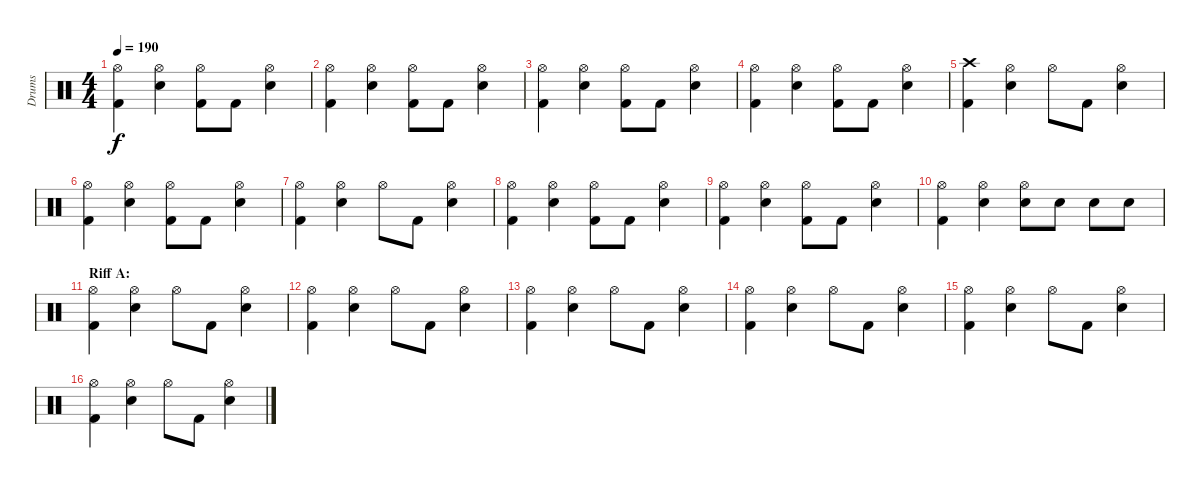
\track ("Drums" "Drums") {instrument percussion}
\staff {score}
\articulation defaults
\ts (4 4)
\tempo 190
\clef neutral
\ks c
("Hi-Hat (open)" "Kick (hit) 2").4{dy f} ("Hi-Hat (open)" "Electric Snare (hit)").4 ("Hi-Hat (open)" "Kick (hit) 2").8 "Kick (hit) 2".8 ("Hi-Hat (open)" "Electric Snare (hit)").4 |
("Hi-Hat (open)" "Kick (hit) 2").4 ("Hi-Hat (open)" "Electric Snare (hit)").4 ("Hi-Hat (open)" "Kick (hit) 2").8 "Kick (hit) 2".8 ("Hi-Hat (open)" "Electric Snare (hit)").4 |
("Hi-Hat (open)" "Kick (hit) 2").4 ("Hi-Hat (open)" "Electric Snare (hit)").4 ("Hi-Hat (open)" "Kick (hit) 2").8 "Kick (hit) 2".8 ("Hi-Hat (open)" "Electric Snare (hit)").4 |
("Hi-Hat (open)" "Kick (hit) 2").4 ("Hi-Hat (open)" "Electric Snare (hit)").4 ("Hi-Hat (open)" "Kick (hit) 2").8 "Kick (hit) 2".8 ("Hi-Hat (open)" "Electric Snare (hit)").4 |
("Crash high (hit)" "Kick (hit) 2").4 ("Hi-Hat (open)" "Electric Snare (hit)").4 "Hi-Hat (open)".8 "Kick (hit) 2".8 ("Hi-Hat (open)" "Electric Snare (hit)").4 |
("Hi-Hat (open)" "Kick (hit) 2").4 ("Hi-Hat (open)" "Electric Snare (hit)").4 ("Hi-Hat (open)" "Kick (hit) 2").8 "Kick (hit) 2".8 ("Hi-Hat (open)" "Electric Snare (hit)").4 |
("Hi-Hat (open)" "Kick (hit) 2").4 ("Hi-Hat (open)" "Electric Snare (hit)").4 "Hi-Hat (open)".8 "Kick (hit) 2".8 ("Hi-Hat (open)" "Electric Snare (hit)").4 |
("Hi-Hat (open)" "Kick (hit) 2").4 ("Hi-Hat (open)" "Electric Snare (hit)").4 ("Hi-Hat (open)" "Kick (hit) 2").8 "Kick (hit) 2".8 ("Hi-Hat (open)" "Electric Snare (hit)").4 |
("Hi-Hat (open)" "Kick (hit) 2").4 ("Hi-Hat (open)" "Electric Snare (hit)").4 ("Hi-Hat (open)" "Kick (hit) 2").8 "Kick (hit) 2".8 ("Hi-Hat (open)" "Electric Snare (hit)").4 |
("Hi-Hat (open)" "Kick (hit) 2").4 ("Hi-Hat (open)" "Electric Snare (hit)").4 ("Hi-Hat (open)" "Electric Snare (hit)").8 "Electric Snare (hit)".8 "Electric Snare (hit)".8 "Electric Snare (hit)".8 |
\section ("" "Riff A:")
("Hi-Hat (open)" "Kick (hit) 2").4 ("Hi-Hat (open)" "Electric Snare (hit)").4 "Hi-Hat (open)".8 "Kick (hit) 2".8 ("Hi-Hat (open)" "Electric Snare (hit)").4 |
("Hi-Hat (open)" "Kick (hit) 2").4 ("Hi-Hat (open)" "Electric Snare (hit)").4 "Hi-Hat (open)".8 "Kick (hit) 2".8 ("Hi-Hat (open)" "Electric Snare (hit)").4 |
("Hi-Hat (open)" "Kick (hit) 2").4 ("Hi-Hat (open)" "Electric Snare (hit)").4 "Hi-Hat (open)".8 "Kick (hit) 2".8 ("Hi-Hat (open)" "Electric Snare (hit)").4 |
("Hi-Hat (open)" "Kick (hit) 2").4 ("Hi-Hat (open)" "Electric Snare (hit)").4 "Hi-Hat (open)".8 "Kick (hit) 2".8 ("Hi-Hat (open)" "Electric Snare (hit)").4 |
("Hi-Hat (open)" "Kick (hit) 2").4 ("Hi-Hat (open)" "Electric Snare (hit)").4 "Hi-Hat (open)".8 "Kick (hit) 2".8 ("Hi-Hat (open)" "Electric Snare (hit)").4 |
("Hi-Hat (open)" "Kick (hit) 2").4 ("Hi-Hat (open)" "Electric Snare (hit)").4 "Hi-Hat (open)".8 "Kick (hit) 2".8 ("Hi-Hat (open)" "Electric Snare (hit)").4
